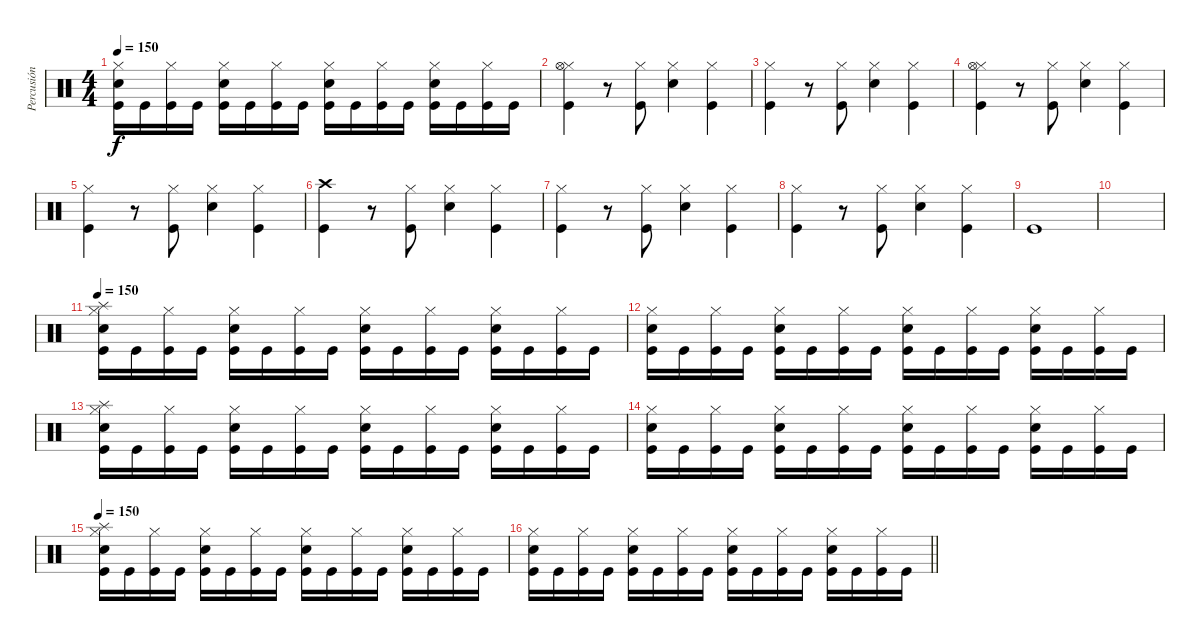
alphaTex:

\track ("Percusión" "Percusión") {instrument percussion}
\staff {score}
\articulation defaults
\ts (4 4)
\tempo 150
\clef neutral
\ks c
("Hi-Hat (closed)" "Snare (hit) 2" "Kick (hit)").16{dy f} "Kick (hit)".16 ("Hi-Hat (closed)" "Kick (hit)").16 "Kick (hit)".16 ("Hi-Hat (closed)" "Snare (hit) 2" "Kick (hit)").16 "Kick (hit)".16 ("Hi-Hat (closed)" "Kick (hit)").16 "Kick (hit)".16 ("Hi-Hat (closed)" "Snare (hit) 2" "Kick (hit)").16 "Kick (hit)".16 ("Hi-Hat (closed)" "Kick (hit)").16 "Kick (hit)".16 ("Hi-Hat (closed)" "Snare (hit) 2" "Kick (hit)").16 "Kick (hit)".16 ("Hi-Hat (closed)" "Kick (hit)").16 "Kick (hit)".16 |
("Hi-Hat (closed)" "Hi-Hat (open)" "Kick (hit)").4 r.8 ("Hi-Hat (closed)" "Kick (hit)").8 ("Hi-Hat (closed)" "Snare (hit) 2").4 ("Hi-Hat (closed)" "Kick (hit)").4 |
("Hi-Hat (closed)" "Kick (hit)").4 r.8 ("Hi-Hat (closed)" "Kick (hit)").8 ("Hi-Hat (closed)" "Snare (hit) 2").4 ("Hi-Hat (closed)" "Kick (hit)").4 |
("Hi-Hat (closed)" "Hi-Hat (open)" "Kick (hit)").4 r.8 ("Hi-Hat (closed)" "Kick (hit)").8 ("Hi-Hat (closed)" "Snare (hit) 2").4 ("Hi-Hat (closed)" "Kick (hit)").4 |
("Hi-Hat (closed)" "Kick (hit)").4 r.8 ("Hi-Hat (closed)" "Kick (hit)").8 ("Hi-Hat (closed)" "Snare (hit) 2").4 ("Hi-Hat (closed)" "Kick (hit)").4 |
("Crash high (hit)" "Kick (hit)").4 r.8 ("Hi-Hat (closed)" "Kick (hit)").8 ("Hi-Hat (closed)" "Snare (hit) 2").4 ("Hi-Hat (closed)" "Kick (hit)").4 |
("Hi-Hat (closed)" "Kick (hit)").4 r.8 ("Hi-Hat (closed)" "Kick (hit)").8 ("Hi-Hat (closed)" "Snare (hit) 2").4 ("Hi-Hat (closed)" "Kick (hit)").4 |
("Hi-Hat (closed)" "Kick (hit)").4 r.8 ("Hi-Hat (closed)" "Kick (hit)").8 ("Hi-Hat (closed)" "Snare (hit) 2").4 ("Hi-Hat (closed)" "Kick (hit)").4 |
"Kick (hit)".1 |
|
\tempo 150
("Hi-Hat (closed)" "Splash (hit)" "Snare (hit) 2" "Kick (hit)").16 "Kick (hit)".16 ("Hi-Hat (closed)" "Kick (hit)").16 "Kick (hit)".16 ("Hi-Hat (closed)" "Snare (hit) 2" "Kick (hit)").16 "Kick (hit)".16 ("Hi-Hat (closed)" "Kick (hit)").16 "Kick (hit)".16 ("Hi-Hat (closed)" "Snare (hit) 2" "Kick (hit)").16 "Kick (hit)".16 ("Hi-Hat (closed)" "Kick (hit)").16 "Kick (hit)".16 ("Hi-Hat (closed)" "Snare (hit) 2" "Kick (hit)").16 "Kick (hit)".16 ("Hi-Hat (closed)" "Kick (hit)").16 "Kick (hit)".16 |
("Hi-Hat (closed)" "Snare (hit) 2" "Kick (hit)").16 "Kick (hit)".16 ("Hi-Hat (closed)" "Kick (hit)").16 "Kick (hit)".16 ("Hi-Hat (closed)" "Snare (hit) 2" "Kick (hit)").16 "Kick (hit)".16 ("Hi-Hat (closed)" "Kick (hit)").16 "Kick (hit)".16 ("Hi-Hat (closed)" "Snare (hit) 2" "Kick (hit)").16 "Kick (hit)".16 ("Hi-Hat (closed)" "Kick (hit)").16 "Kick (hit)".16 ("Hi-Hat (closed)" "Snare (hit) 2" "Kick (hit)").16 "Kick (hit)".16 ("Hi-Hat (closed)" "Kick (hit)").16 "Kick (hit)".16 |
("Hi-Hat (closed)" "Splash (hit)" "Snare (hit) 2" "Kick (hit)").16 "Kick (hit)".16 ("Hi-Hat (closed)" "Kick (hit)").16 "Kick (hit)".16 ("Hi-Hat (closed)" "Snare (hit) 2" "Kick (hit)").16 "Kick (hit)".16 ("Hi-Hat (closed)" "Kick (hit)").16 "Kick (hit)".16 ("Hi-Hat (closed)" "Snare (hit) 2" "Kick (hit)").16 "Kick (hit)".16 ("Hi-Hat (closed)" "Kick (hit)").16 "Kick (hit)".16 ("Hi-Hat (closed)" "Snare (hit) 2" "Kick (hit)").16 "Kick (hit)".16 ("Hi-Hat (closed)" "Kick (hit)").16 "Kick (hit)".16 |
("Hi-Hat (closed)" "Snare (hit) 2" "Kick (hit)").16 "Kick (hit)".16 ("Hi-Hat (closed)" "Kick (hit)").16 "Kick (hit)".16 ("Hi-Hat (closed)" "Snare (hit) 2" "Kick (hit)").16 "Kick (hit)".16 ("Hi-Hat (closed)" "Kick (hit)").16 "Kick (hit)".16 ("Hi-Hat (closed)" "Snare (hit) 2" "Kick (hit)").16 "Kick (hit)".16 ("Hi-Hat (closed)" "Kick (hit)").16 "Kick (hit)".16 ("Hi-Hat (closed)" "Snare (hit) 2" "Kick (hit)").16 "Kick (hit)".16 ("Hi-Hat (closed)" "Kick (hit)").16 "Kick (hit)".16 |
\tempo 150
("Hi-Hat (closed)" "Splash (hit)" "Snare (hit) 2" "Kick (hit)").16 "Kick (hit)".16 ("Hi-Hat (closed)" "Kick (hit)").16 "Kick (hit)".16 ("Hi-Hat (closed)" "Snare (hit) 2" "Kick (hit)").16 "Kick (hit)".16 ("Hi-Hat (closed)" "Kick (hit)").16 "Kick (hit)".16 ("Hi-Hat (closed)" "Snare (hit) 2" "Kick (hit)").16 "Kick (hit)".16 ("Hi-Hat (closed)" "Kick (hit)").16 "Kick (hit)".16 ("Hi-Hat (closed)" "Snare (hit) 2" "Kick (hit)").16 "Kick (hit)".16 ("Hi-Hat (closed)" "Kick (hit)").16 "Kick (hit)".16 |
\barLineRight lightlight
("Hi-Hat (closed)" "Snare (hit) 2" "Kick (hit)").16 "Kick (hit)".16 ("Hi-Hat (closed)" "Kick (hit)").16 "Kick (hit)".16 ("Hi-Hat (closed)" "Snare (hit) 2" "Kick (hit)").16 "Kick (hit)".16 ("Hi-Hat (closed)" "Kick (hit)").16 "Kick (hit)".16 ("Hi-Hat (closed)" "Snare (hit) 2" "Kick (hit)").16 "Kick (hit)".16 ("Hi-Hat (closed)" "Kick (hit)").16 "Kick (hit)".16 ("Hi-Hat (closed)" "Snare (hit) 2" "Kick (hit)").16 "Kick (hit)".16 ("Hi-Hat (closed)" "Kick (hit)").16 "Kick (hit)".16
